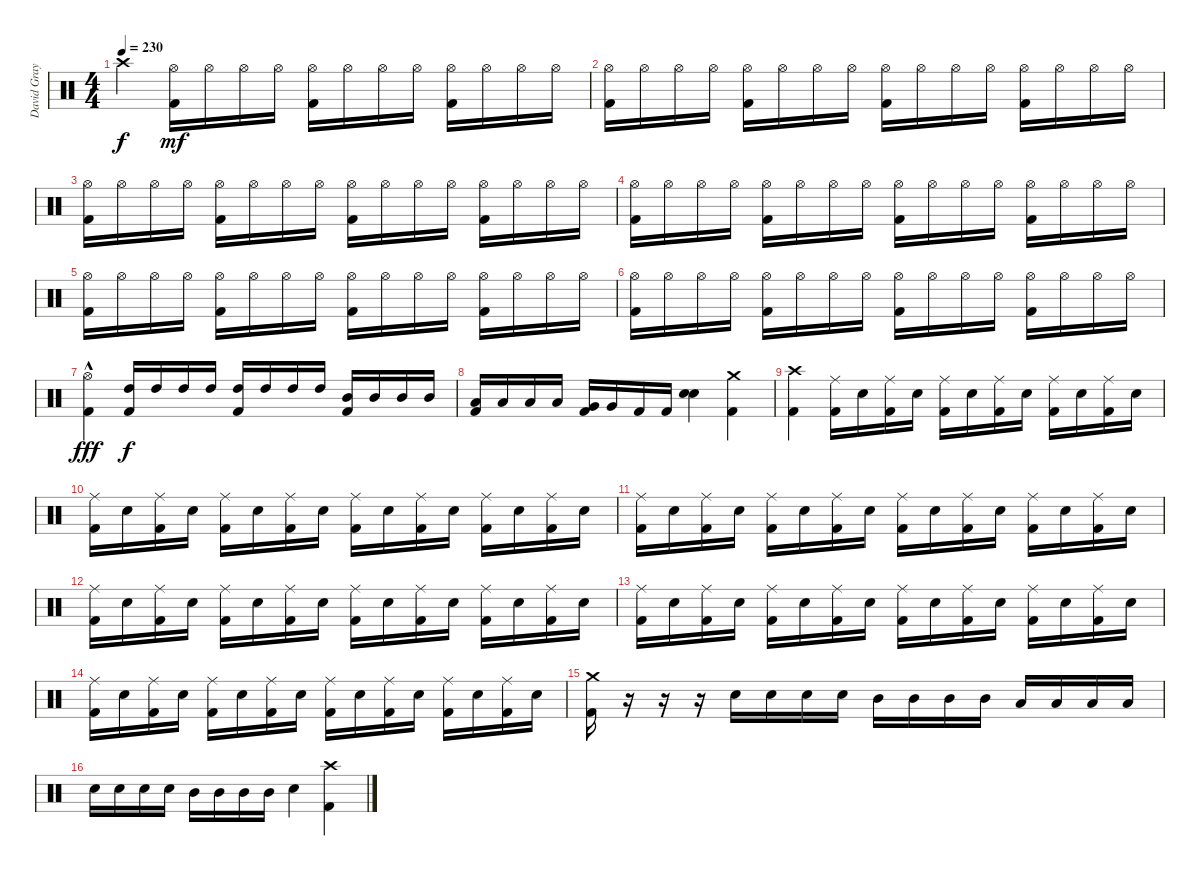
\track ("David Gray" "David Gray") {instrument percussion}
\staff {score}
\articulation defaults
\ts (4 4)
\tempo 230
\clef neutral
\ks c "Crash high (hit)".4{dy f}
("Hi-Hat (open)" "Kick (hit) 2").16{dy mf} "Hi-Hat (open)".16 "Hi-Hat (open)".16 "Hi-Hat (open)".16 ("Hi-Hat (open)" "Kick (hit) 2").16 "Hi-Hat (open)".16 "Hi-Hat (open)".16 "Hi-Hat (open)".16 ("Hi-Hat (open)" "Kick (hit) 2").16 "Hi-Hat (open)".16 "Hi-Hat (open)".16 "Hi-Hat (open)".16 |
("Hi-Hat (open)" "Kick (hit) 2").16 "Hi-Hat (open)".16 "Hi-Hat (open)".16 "Hi-Hat (open)".16 ("Hi-Hat (open)" "Kick (hit) 2").16 "Hi-Hat (open)".16 "Hi-Hat (open)".16 "Hi-Hat (open)".16 ("Hi-Hat (open)" "Kick (hit) 2").16 "Hi-Hat (open)".16 "Hi-Hat (open)".16 "Hi-Hat (open)".16 ("Hi-Hat (open)" "Kick (hit) 2").16 "Hi-Hat (open)".16 "Hi-Hat (open)".16 "Hi-Hat (open)".16 |
("Hi-Hat (open)" "Kick (hit) 2").16 "Hi-Hat (open)".16 "Hi-Hat (open)".16 "Hi-Hat (open)".16 ("Hi-Hat (open)" "Kick (hit) 2").16 "Hi-Hat (open)".16 "Hi-Hat (open)".16 "Hi-Hat (open)".16 ("Hi-Hat (open)" "Kick (hit) 2").16 "Hi-Hat (open)".16 "Hi-Hat (open)".16 "Hi-Hat (open)".16 ("Hi-Hat (open)" "Kick (hit) 2").16 "Hi-Hat (open)".16 "Hi-Hat (open)".16 "Hi-Hat (open)".16 |
("Hi-Hat (open)" "Kick (hit) 2").16 "Hi-Hat (open)".16 "Hi-Hat (open)".16 "Hi-Hat (open)".16 ("Hi-Hat (open)" "Kick (hit) 2").16 "Hi-Hat (open)".16 "Hi-Hat (open)".16 "Hi-Hat (open)".16 ("Hi-Hat (open)" "Kick (hit) 2").16 "Hi-Hat (open)".16 "Hi-Hat (open)".16 "Hi-Hat (open)".16 ("Hi-Hat (open)" "Kick (hit) 2").16 "Hi-Hat (open)".16 "Hi-Hat (open)".16 "Hi-Hat (open)".16 |
("Hi-Hat (open)" "Kick (hit) 2").16 "Hi-Hat (open)".16 "Hi-Hat (open)".16 "Hi-Hat (open)".16 ("Hi-Hat (open)" "Kick (hit) 2").16 "Hi-Hat (open)".16 "Hi-Hat (open)".16 "Hi-Hat (open)".16 ("Hi-Hat (open)" "Kick (hit) 2").16 "Hi-Hat (open)".16 "Hi-Hat (open)".16 "Hi-Hat (open)".16 ("Hi-Hat (open)" "Kick (hit) 2").16 "Hi-Hat (open)".16 "Hi-Hat (open)".16 "Hi-Hat (open)".16 |
("Hi-Hat (open)" "Kick (hit) 2").16 "Hi-Hat (open)".16 "Hi-Hat (open)".16 "Hi-Hat (open)".16 ("Hi-Hat (open)" "Kick (hit) 2").16 "Hi-Hat (open)".16 "Hi-Hat (open)".16 "Hi-Hat (open)".16 ("Hi-Hat (open)" "Kick (hit) 2").16 "Hi-Hat (open)".16 "Hi-Hat (open)".16 "Hi-Hat (open)".16 ("Hi-Hat (open)" "Kick (hit) 2").16 "Hi-Hat (open)".16 "Hi-Hat (open)".16 "Hi-Hat (open)".16 |
("Hi-Hat (open)"{hac} "Kick (hit) 2").4{dy fff} ("High Tom (hit)" "Kick (hit) 2").16{dy f} "High Tom (hit)".16 "High Tom (hit)".16 "High Tom (hit)".16 ("High Tom (hit)" "Kick (hit) 2").16 "High Tom (hit)".16 "High Tom (hit)".16 "High Tom (hit)".16 ("Mid Tom (hit)" "Kick (hit) 2").16 "Mid Tom (hit)".16 "Mid Tom (hit)".16 "Mid Tom (hit)".16 |
("Low Tom (hit)" "Kick (hit) 2").16 "Low Tom (hit)".16 "Low Tom (hit)".16 "Low Tom (hit)".16 ("Very Low Tom (hit)" "Kick (hit) 2").16 "Very Low Tom (hit)".16 "Kick (hit) 2".16 "Kick (hit) 2".16 ("Electric Snare (hit)" "Electric Snare (hit)").4{bd 240} ("Crash medium (hit)" "Kick (hit) 2").4 |
("Crash high (hit)" "Kick (hit) 2").4 ("Ride (middle)" "Kick (hit) 2").16 "Electric Snare (hit)".16 ("Ride (middle)" "Kick (hit) 2").16 "Electric Snare (hit)".16 ("Ride (middle)" "Kick (hit) 2").16 "Electric Snare (hit)".16 ("Ride (middle)" "Kick (hit) 2").16 "Electric Snare (hit)".16 ("Ride (middle)" "Kick (hit) 2").16 "Electric Snare (hit)".16 ("Ride (middle)" "Kick (hit) 2").16 "Electric Snare (hit)".16 |
("Ride (middle)" "Kick (hit) 2").16 "Electric Snare (hit)".16 ("Ride (middle)" "Kick (hit) 2").16 "Electric Snare (hit)".16 ("Ride (middle)" "Kick (hit) 2").16 "Electric Snare (hit)".16 ("Ride (middle)" "Kick (hit) 2").16 "Electric Snare (hit)".16 ("Ride (middle)" "Kick (hit) 2").16 "Electric Snare (hit)".16 ("Ride (middle)" "Kick (hit) 2").16 "Electric Snare (hit)".16 ("Ride (middle)" "Kick (hit) 2").16 "Electric Snare (hit)".16 ("Ride (middle)" "Kick (hit) 2").16 "Electric Snare (hit)".16 |
("Ride (middle)" "Kick (hit) 2").16 "Electric Snare (hit)".16 ("Ride (middle)" "Kick (hit) 2").16 "Electric Snare (hit)".16 ("Ride (middle)" "Kick (hit) 2").16 "Electric Snare (hit)".16 ("Ride (middle)" "Kick (hit) 2").16 "Electric Snare (hit)".16 ("Ride (middle)" "Kick (hit) 2").16 "Electric Snare (hit)".16 ("Ride (middle)" "Kick (hit) 2").16 "Electric Snare (hit)".16 ("Ride (middle)" "Kick (hit) 2").16 "Electric Snare (hit)".16 ("Ride (middle)" "Kick (hit) 2").16 "Electric Snare (hit)".16 |
("Ride (middle)" "Kick (hit) 2").16 "Electric Snare (hit)".16 ("Ride (middle)" "Kick (hit) 2").16 "Electric Snare (hit)".16 ("Ride (middle)" "Kick (hit) 2").16 "Electric Snare (hit)".16 ("Ride (middle)" "Kick (hit) 2").16 "Electric Snare (hit)".16 ("Ride (middle)" "Kick (hit) 2").16 "Electric Snare (hit)".16 ("Ride (middle)" "Kick (hit) 2").16 "Electric Snare (hit)".16 ("Ride (middle)" "Kick (hit) 2").16 "Electric Snare (hit)".16 ("Ride (middle)" "Kick (hit) 2").16 "Electric Snare (hit)".16 |
("Ride (middle)" "Kick (hit) 2").16 "Electric Snare (hit)".16 ("Ride (middle)" "Kick (hit) 2").16 "Electric Snare (hit)".16 ("Ride (middle)" "Kick (hit) 2").16 "Electric Snare (hit)".16 ("Ride (middle)" "Kick (hit) 2").16 "Electric Snare (hit)".16 ("Ride (middle)" "Kick (hit) 2").16 "Electric Snare (hit)".16 ("Ride (middle)" "Kick (hit) 2").16 "Electric Snare (hit)".16 ("Ride (middle)" "Kick (hit) 2").16 "Electric Snare (hit)".16 ("Ride (middle)" "Kick (hit) 2").16 "Electric Snare (hit)".16 |
("Ride (middle)" "Kick (hit) 2").16 "Electric Snare (hit)".16 ("Ride (middle)" "Kick (hit) 2").16 "Electric Snare (hit)".16 ("Ride (middle)" "Kick (hit) 2").16 "Electric Snare (hit)".16 ("Ride (middle)" "Kick (hit) 2").16 "Electric Snare (hit)".16 ("Ride (middle)" "Kick (hit) 2").16 "Electric Snare (hit)".16 ("Ride (middle)" "Kick (hit) 2").16 "Electric Snare (hit)".16 ("Ride (middle)" "Kick (hit) 2").16 "Electric Snare (hit)".16 ("Ride (middle)" "Kick (hit) 2").16 "Electric Snare (hit)".16 |
("Crash medium (hit)" "Kick (hit) 2").16 r.16 r.16 r.16 "Electric Snare (hit)".16 "Electric Snare (hit)".16 "Electric Snare (hit)".16 "Electric Snare (hit)".16 "Mid Tom (hit)".16 "Mid Tom (hit)".16 "Mid Tom (hit)".16 "Mid Tom (hit)".16 "Low Tom (hit)".16 "Low Tom (hit)".16 "Low Tom (hit)".16 "Low Tom (hit)".16 |
"Electric Snare (hit)".16 "Electric Snare (hit)".16 "Electric Snare (hit)".16 "Electric Snare (hit)".16 "Mid Tom (hit)".16 "Mid Tom (hit)".16 "Mid Tom (hit)".16 "Mid Tom (hit)".16 "Electric Snare (hit)".4 ("Crash high (hit)" "Kick (hit) 2").4
